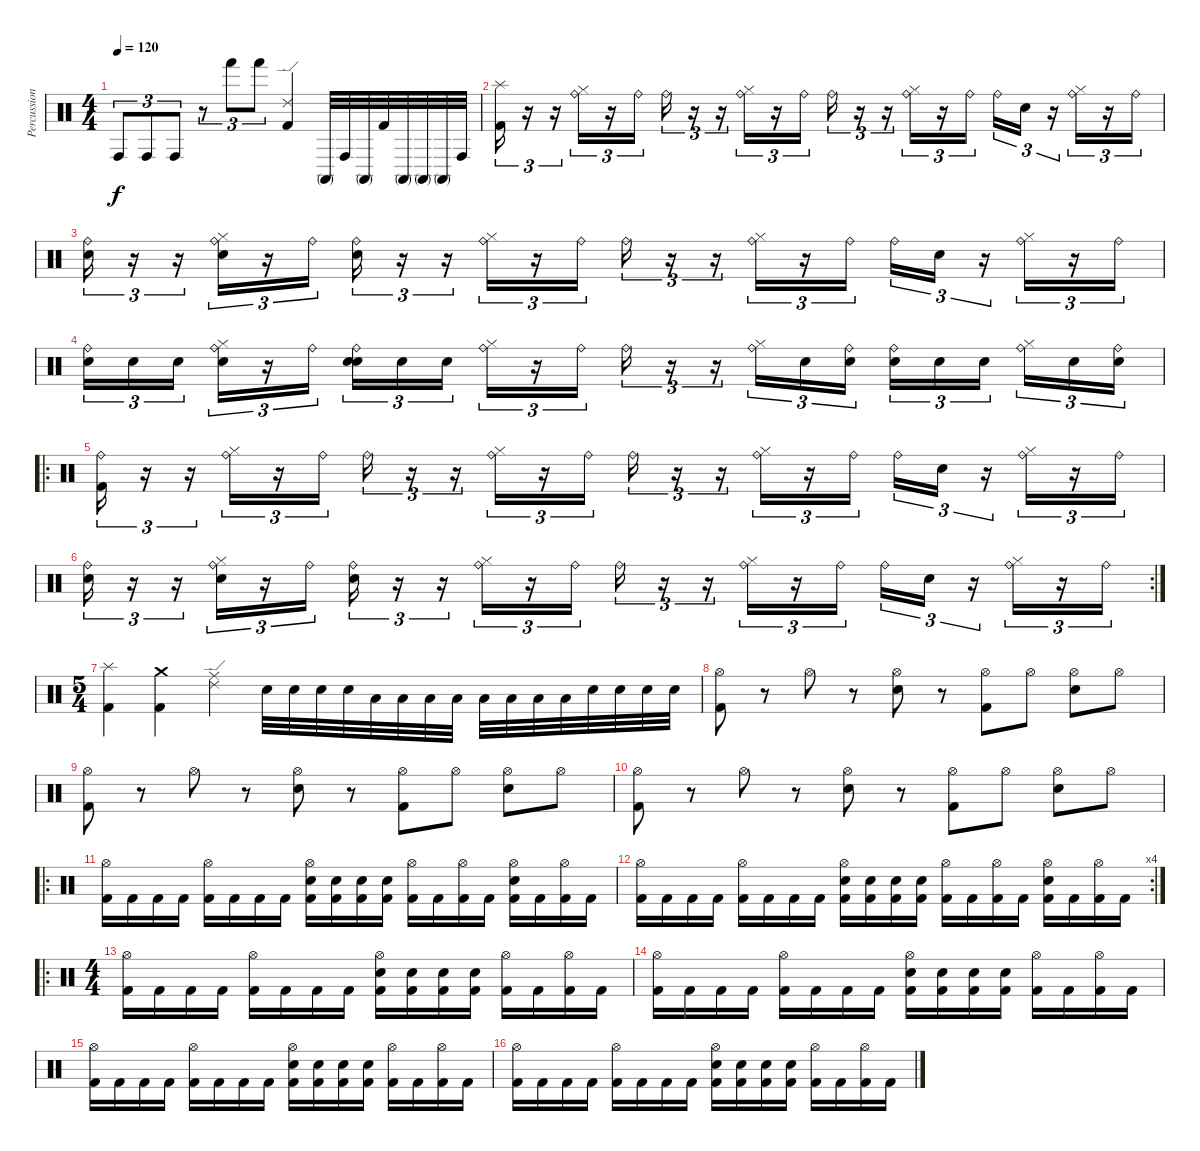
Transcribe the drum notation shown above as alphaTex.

\track ("Percussion" "Percussion") {instrument percussion}
\staff {score}
\articulation defaults
\ts (4 4)
\tempo 120
\clef neutral
\ks c "Conga high (hit)".8{tu (3 2) dy f} "Conga high (hit)".8{tu (3 2)} "Conga high (hit)".8{tu (3 2)}
r.8{tu (3 2)} "Hand (hit)".8{tu (3 2)} "Hand (hit)".8{tu (3 2)} ("Ride (edge) 2" "Kick (hit) 2").4 "Conga high (mute)".32 "Conga high (hit)".32 "Conga high (mute)".32 "Kick (hit) 2".32 "Conga high (mute)".32 "Conga high (mute)".32 "Conga high (mute)".32 "Conga high (hit)".32 |
("Kick (hit) 2" "Splash (hit)").16{tu (3 2)} r.16{tu (3 2)} r.16{tu (3 2)} ("Hi-Hat (closed)" "Ride (bell)").16{tu (3 2)} r.16{tu (3 2)} "Ride (bell)".16{tu (3 2)} "Ride (bell)".16{tu (3 2)} r.16{tu (3 2)} r.16{tu (3 2)} ("Hi-Hat (closed)" "Ride (bell)").16{tu (3 2)} r.16{tu (3 2)} "Ride (bell)".16{tu (3 2)} "Ride (bell)".16{tu (3 2)} r.16{tu (3 2)} r.16{tu (3 2)} ("Hi-Hat (closed)" "Ride (bell)").16{tu (3 2)} r.16{tu (3 2)} "Ride (bell)".16{tu (3 2)} "Ride (bell)".16{tu (3 2)} "Snare (hit) 2".16{tu (3 2)} r.16{tu (3 2)} ("Hi-Hat (closed)" "Ride (bell)").16{tu (3 2)} r.16{tu (3 2)} "Ride (bell)".16{tu (3 2)} |
("Snare (hit) 2" "Ride (bell)").16{tu (3 2)} r.16{tu (3 2)} r.16{tu (3 2)} ("Hi-Hat (closed)" "Snare (hit) 2" "Ride (bell)").16{tu (3 2)} r.16{tu (3 2)} "Ride (bell)".16{tu (3 2)} ("Snare (hit) 2" "Ride (bell)").16{tu (3 2)} r.16{tu (3 2)} r.16{tu (3 2)} ("Hi-Hat (closed)" "Ride (bell)").16{tu (3 2)} r.16{tu (3 2)} "Ride (bell)".16{tu (3 2)} "Ride (bell)".16{tu (3 2)} r.16{tu (3 2)} r.16{tu (3 2)} ("Hi-Hat (closed)" "Ride (bell)").16{tu (3 2)} r.16{tu (3 2)} "Ride (bell)".16{tu (3 2)} "Ride (bell)".16{tu (3 2)} "Snare (hit) 2".16{tu (3 2)} r.16{tu (3 2)} ("Hi-Hat (closed)" "Ride (bell)").16{tu (3 2)} r.16{tu (3 2)} "Ride (bell)".16{tu (3 2)} |
("Snare (hit) 2" "Ride (bell)").16{tu (3 2)} "Snare (hit) 2".16{tu (3 2)} "Snare (hit) 2".16{tu (3 2) beam splitsecondary} ("Hi-Hat (closed)" "Snare (hit) 2" "Ride (bell)").16{tu (3 2)} r.16{tu (3 2)} "Ride (bell)".16{tu (3 2)} ("Snare (hit) 2" "Snare (hit) 2" "Ride (bell)").16{tu (3 2)} "Snare (hit) 2".16{tu (3 2)} "Snare (hit) 2".16{tu (3 2) beam splitsecondary} ("Hi-Hat (closed)" "Ride (bell)").16{tu (3 2)} r.16{tu (3 2)} "Ride (bell)".16{tu (3 2)} "Ride (bell)".16{tu (3 2)} r.16{tu (3 2)} r.16{tu (3 2)} ("Hi-Hat (closed)" "Ride (bell)").16{tu (3 2)} "Snare (hit) 2".16{tu (3 2)} ("Snare (hit) 2" "Ride (bell)").16{tu (3 2)} ("Snare (hit) 2" "Ride (bell)").16{tu (3 2)} "Snare (hit) 2".16{tu (3 2)} "Snare (hit) 2".16{tu (3 2) beam splitsecondary} ("Hi-Hat (closed)" "Ride (bell)").16{tu (3 2)} "Snare (hit) 2".16{tu (3 2)} ("Snare (hit) 2" "Ride (bell)").16{tu (3 2)} |
\ro
("Kick (hit) 2" "Ride (bell)").16{tu (3 2)} r.16{tu (3 2)} r.16{tu (3 2)} ("Hi-Hat (closed)" "Ride (bell)").16{tu (3 2)} r.16{tu (3 2)} "Ride (bell)".16{tu (3 2)} "Ride (bell)".16{tu (3 2)} r.16{tu (3 2)} r.16{tu (3 2)} ("Hi-Hat (closed)" "Ride (bell)").16{tu (3 2)} r.16{tu (3 2)} "Ride (bell)".16{tu (3 2)} "Ride (bell)".16{tu (3 2)} r.16{tu (3 2)} r.16{tu (3 2)} ("Hi-Hat (closed)" "Ride (bell)").16{tu (3 2)} r.16{tu (3 2)} "Ride (bell)".16{tu (3 2)} "Ride (bell)".16{tu (3 2)} "Snare (hit) 2".16{tu (3 2)} r.16{tu (3 2)} ("Hi-Hat (closed)" "Ride (bell)").16{tu (3 2)} r.16{tu (3 2)} "Ride (bell)".16{tu (3 2)} |
\rc 2
("Snare (hit) 2" "Ride (bell)").16{tu (3 2)} r.16{tu (3 2)} r.16{tu (3 2)} ("Hi-Hat (closed)" "Snare (hit) 2" "Ride (bell)").16{tu (3 2)} r.16{tu (3 2)} "Ride (bell)".16{tu (3 2)} ("Snare (hit) 2" "Ride (bell)").16{tu (3 2)} r.16{tu (3 2)} r.16{tu (3 2)} ("Hi-Hat (closed)" "Ride (bell)").16{tu (3 2)} r.16{tu (3 2)} "Ride (bell)".16{tu (3 2)} "Ride (bell)".16{tu (3 2)} r.16{tu (3 2)} r.16{tu (3 2)} ("Hi-Hat (closed)" "Ride (bell)").16{tu (3 2)} r.16{tu (3 2)} "Ride (bell)".16{tu (3 2)} "Ride (bell)".16{tu (3 2)} "Snare (hit) 2".16{tu (3 2)} r.16{tu (3 2)} ("Hi-Hat (closed)" "Ride (bell)").16{tu (3 2)} r.16{tu (3 2)} "Ride (bell)".16{tu (3 2)} |
\ts (5 4)
("Kick (hit) 2" "Splash (hit)").4 ("Kick (hit) 2" "Crash medium (hit)").4 ("Ride (edge) 2" "Ride (middle)").4 "Snare (hit) 2".32 "Snare (hit) 2".32 "Snare (hit) 2".32 "Snare (hit) 2".32 "Low Floor Tom (hit)".32 "Low Floor Tom (hit)".32 "Low Floor Tom (hit)".32 "Low Floor Tom (hit)".32 "Low Tom (hit)".32 "Low Tom (hit)".32 "Low Tom (hit)".32 "Low Tom (hit)".32 "Snare (hit) 2".32 "Snare (hit) 2".32 "Snare (hit) 2".32 "Snare (hit) 2".32 |
("Kick (hit) 2" "Hi-Hat (open)").8 r.8 "Hi-Hat (open)".8 r.8 ("Snare (hit) 2" "Hi-Hat (open)").8 r.8 ("Kick (hit) 2" "Hi-Hat (open)").8 "Hi-Hat (open)".8 ("Snare (hit) 2" "Hi-Hat (open)").8 "Hi-Hat (open)".8 |
("Kick (hit) 2" "Hi-Hat (open)").8 r.8 "Hi-Hat (open)".8 r.8 ("Snare (hit) 2" "Hi-Hat (open)").8 r.8 ("Kick (hit) 2" "Hi-Hat (open)").8 "Hi-Hat (open)".8 ("Snare (hit) 2" "Hi-Hat (open)").8 "Hi-Hat (open)".8 |
("Kick (hit) 2" "Hi-Hat (open)").8 r.8 "Hi-Hat (open)".8 r.8 ("Snare (hit) 2" "Hi-Hat (open)").8 r.8 ("Kick (hit) 2" "Hi-Hat (open)").8 "Hi-Hat (open)".8 ("Snare (hit) 2" "Hi-Hat (open)").8 "Hi-Hat (open)".8 |
\ro
("Kick (hit) 2" "Hi-Hat (open)").16 "Kick (hit) 2".16 "Kick (hit) 2".16 "Kick (hit) 2".16 ("Kick (hit) 2" "Hi-Hat (open)").16 "Kick (hit) 2".16 "Kick (hit) 2".16 "Kick (hit) 2".16 ("Kick (hit) 2" "Snare (hit) 2" "Hi-Hat (open)").16 ("Kick (hit) 2" "Snare (hit) 2").16 ("Kick (hit) 2" "Snare (hit) 2").16 ("Kick (hit) 2" "Snare (hit) 2").16 ("Kick (hit) 2" "Hi-Hat (open)").16 "Kick (hit) 2".16 ("Kick (hit) 2" "Hi-Hat (open)").16 "Kick (hit) 2".16 ("Kick (hit) 2" "Snare (hit) 2" "Hi-Hat (open)").16 "Kick (hit) 2".16 ("Kick (hit) 2" "Hi-Hat (open)").16 "Kick (hit) 2".16 |
\rc 4
("Kick (hit) 2" "Hi-Hat (open)").16 "Kick (hit) 2".16 "Kick (hit) 2".16 "Kick (hit) 2".16 ("Kick (hit) 2" "Hi-Hat (open)").16 "Kick (hit) 2".16 "Kick (hit) 2".16 "Kick (hit) 2".16 ("Kick (hit) 2" "Snare (hit) 2" "Hi-Hat (open)").16 ("Kick (hit) 2" "Snare (hit) 2").16 ("Kick (hit) 2" "Snare (hit) 2").16 ("Kick (hit) 2" "Snare (hit) 2").16 ("Kick (hit) 2" "Hi-Hat (open)").16 "Kick (hit) 2".16 ("Kick (hit) 2" "Hi-Hat (open)").16 "Kick (hit) 2".16 ("Kick (hit) 2" "Snare (hit) 2" "Hi-Hat (open)").16 "Kick (hit) 2".16 ("Kick (hit) 2" "Hi-Hat (open)").16 "Kick (hit) 2".16 |
\ro
\ts (4 4)
("Kick (hit) 2" "Hi-Hat (open)").16 "Kick (hit) 2".16 "Kick (hit) 2".16 "Kick (hit) 2".16 ("Kick (hit) 2" "Hi-Hat (open)").16 "Kick (hit) 2".16 "Kick (hit) 2".16 "Kick (hit) 2".16 ("Kick (hit) 2" "Snare (hit) 2" "Hi-Hat (open)").16 ("Kick (hit) 2" "Snare (hit) 2").16 ("Kick (hit) 2" "Snare (hit) 2").16 ("Kick (hit) 2" "Snare (hit) 2").16 ("Kick (hit) 2" "Hi-Hat (open)").16 "Kick (hit) 2".16 ("Kick (hit) 2" "Hi-Hat (open)").16 "Kick (hit) 2".16 |
("Kick (hit) 2" "Hi-Hat (open)").16 "Kick (hit) 2".16 "Kick (hit) 2".16 "Kick (hit) 2".16 ("Kick (hit) 2" "Hi-Hat (open)").16 "Kick (hit) 2".16 "Kick (hit) 2".16 "Kick (hit) 2".16 ("Kick (hit) 2" "Snare (hit) 2" "Hi-Hat (open)").16 ("Kick (hit) 2" "Snare (hit) 2").16 ("Kick (hit) 2" "Snare (hit) 2").16 ("Kick (hit) 2" "Snare (hit) 2").16 ("Kick (hit) 2" "Hi-Hat (open)").16 "Kick (hit) 2".16 ("Kick (hit) 2" "Hi-Hat (open)").16 "Kick (hit) 2".16 |
("Kick (hit) 2" "Hi-Hat (open)").16 "Kick (hit) 2".16 "Kick (hit) 2".16 "Kick (hit) 2".16 ("Kick (hit) 2" "Hi-Hat (open)").16 "Kick (hit) 2".16 "Kick (hit) 2".16 "Kick (hit) 2".16 ("Kick (hit) 2" "Snare (hit) 2" "Hi-Hat (open)").16 ("Kick (hit) 2" "Snare (hit) 2").16 ("Kick (hit) 2" "Snare (hit) 2").16 ("Kick (hit) 2" "Snare (hit) 2").16 ("Kick (hit) 2" "Hi-Hat (open)").16 "Kick (hit) 2".16 ("Kick (hit) 2" "Hi-Hat (open)").16 "Kick (hit) 2".16 |
("Kick (hit) 2" "Hi-Hat (open)").16 "Kick (hit) 2".16 "Kick (hit) 2".16 "Kick (hit) 2".16 ("Kick (hit) 2" "Hi-Hat (open)").16 "Kick (hit) 2".16 "Kick (hit) 2".16 "Kick (hit) 2".16 ("Kick (hit) 2" "Snare (hit) 2" "Hi-Hat (open)").16 ("Kick (hit) 2" "Snare (hit) 2").16 ("Kick (hit) 2" "Snare (hit) 2").16 ("Kick (hit) 2" "Snare (hit) 2").16 ("Kick (hit) 2" "Hi-Hat (open)").16 "Kick (hit) 2".16 ("Kick (hit) 2" "Hi-Hat (open)").16 "Kick (hit) 2".16
